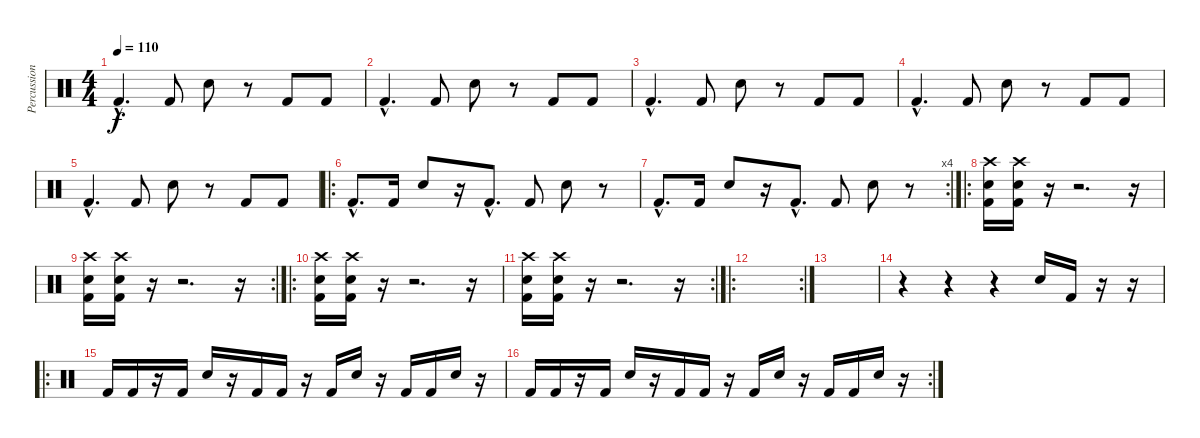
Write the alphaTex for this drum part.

\track ("Percussions" "Percussion") {instrument percussion}
\staff {score}
\articulation defaults
\ts (4 4)
\tempo 110
\clef neutral
\ks c "Kick (hit) 2"{hac}.4{d dy f} "Kick (hit) 2".8 "Electric Snare (hit)".8
r.8 "Kick (hit) 2".8 "Kick (hit) 2".8 |
"Kick (hit) 2"{hac}.4{d} "Kick (hit) 2".8 "Electric Snare (hit)".8 r.8 "Kick (hit) 2".8 "Kick (hit) 2".8 |
"Kick (hit) 2"{hac}.4{d} "Kick (hit) 2".8 "Electric Snare (hit)".8 r.8 "Kick (hit) 2".8 "Kick (hit) 2".8 |
"Kick (hit) 2"{hac}.4{d} "Kick (hit) 2".8 "Electric Snare (hit)".8 r.8 "Kick (hit) 2".8 "Kick (hit) 2".8 |
"Kick (hit) 2"{hac}.4{d} "Kick (hit) 2".8 "Electric Snare (hit)".8 r.8 "Kick (hit) 2".8 "Kick (hit) 2".8 |
\ro "Kick (hit) 2"{hac}.8{d} "Kick (hit) 2".16 "Electric Snare (hit)".8
r.16 "Kick (hit) 2"{hac}.8{d} "Kick (hit) 2".8 "Electric Snare (hit)".8 r.8 |
\rc 4 "Kick (hit) 2"{hac}.8{d} "Kick (hit) 2".16 "Electric Snare (hit)".8
r.16 "Kick (hit) 2"{hac}.8{d} "Kick (hit) 2".8 "Electric Snare (hit)".8 r.8 |
\ro
("Kick (hit) 2" "Crash high (hit)" "Electric Snare (hit)").16 ("Kick (hit) 2" "Crash high (hit)" "Electric Snare (hit)").16 r.16 r.2{d} r.16 |
\rc 2
("Kick (hit) 2" "Crash high (hit)" "Electric Snare (hit)").16 ("Kick (hit) 2" "Crash high (hit)" "Electric Snare (hit)").16 r.16 r.2{d} r.16 |
\ro
("Kick (hit) 2" "Crash high (hit)" "Electric Snare (hit)").16 ("Kick (hit) 2" "Crash high (hit)" "Electric Snare (hit)").16 r.16 r.2{d} r.16 |
\rc 2
("Kick (hit) 2" "Crash high (hit)" "Electric Snare (hit)").16 ("Kick (hit) 2" "Crash high (hit)" "Electric Snare (hit)").16 r.16 r.2{d} r.16 |
\ro
\rc 2
|
|
r.4 r.4 r.4 "Electric Snare (hit)".16 "Kick (hit) 2".16 r.16 r.16 |
\ro "Kick (hit) 2".16 "Kick (hit) 2".16
r.16 "Kick (hit) 2".16 "Electric Snare (hit)".16 r.16 "Kick (hit) 2".16 "Kick (hit) 2".16 r.16 "Kick (hit) 2".16 "Electric Snare (hit)".16 r.16 "Kick (hit) 2".16 "Kick (hit) 2".16 "Electric Snare (hit)".16 r.16 |
\rc 2 "Kick (hit) 2".16 "Kick (hit) 2".16
r.16 "Kick (hit) 2".16 "Electric Snare (hit)".16 r.16 "Kick (hit) 2".16 "Kick (hit) 2".16 r.16 "Kick (hit) 2".16 "Electric Snare (hit)".16 r.16 "Kick (hit) 2".16 "Kick (hit) 2".16 "Electric Snare (hit)".16 r.16
